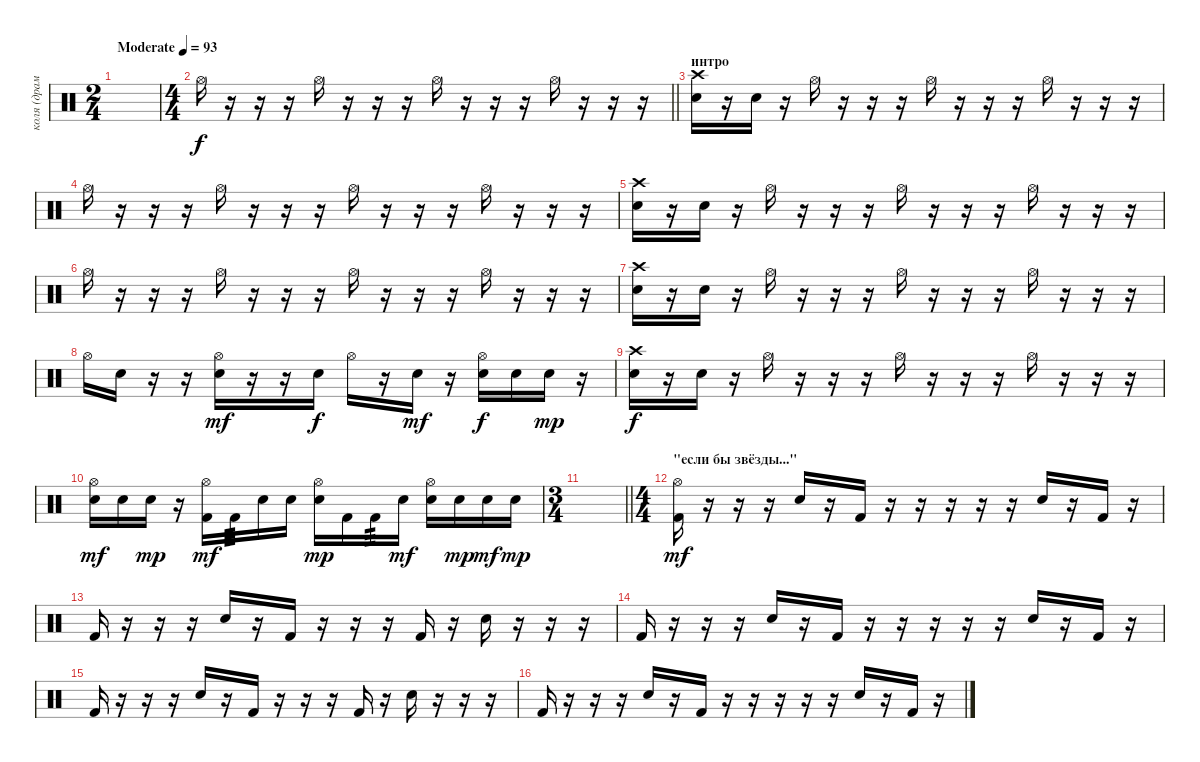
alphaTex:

\track ("коля (драммы)" "коля (драм") {instrument percussion}
\staff {score}
\articulation defaults
\ts (2 4)
\tempo (93 "Moderate")
\clef neutral
\ks c
|
\ts (4 4)
\barLineRight lightlight "Hi-Hat (open)".16
r.16 r.16 r.16 "Hi-Hat (open)".16 r.16 r.16 r.16 "Hi-Hat (open)".16 r.16 r.16 r.16 "Hi-Hat (open)".16 r.16 r.16 r.16 |
\section ("" "интро")
("Snare (hit) 2" "Crash high (hit)").16 r.16 "Snare (hit) 2".16 r.16 "Hi-Hat (open)".16 r.16 r.16 r.16 "Hi-Hat (open)".16 r.16 r.16 r.16 "Hi-Hat (open)".16 r.16 r.16 r.16 |
"Hi-Hat (open)".16 r.16 r.16 r.16 "Hi-Hat (open)".16 r.16 r.16 r.16 "Hi-Hat (open)".16 r.16 r.16 r.16 "Hi-Hat (open)".16 r.16 r.16 r.16 |
("Snare (hit) 2" "Crash high (hit)").16 r.16 "Snare (hit) 2".16 r.16 "Hi-Hat (open)".16 r.16 r.16 r.16 "Hi-Hat (open)".16 r.16 r.16 r.16 "Hi-Hat (open)".16 r.16 r.16 r.16 |
"Hi-Hat (open)".16 r.16 r.16 r.16 "Hi-Hat (open)".16 r.16 r.16 r.16 "Hi-Hat (open)".16 r.16 r.16 r.16 "Hi-Hat (open)".16 r.16 r.16 r.16 |
("Snare (hit) 2" "Crash high (hit)").16 r.16 "Snare (hit) 2".16 r.16 "Hi-Hat (open)".16 r.16 r.16 r.16 "Hi-Hat (open)".16 r.16 r.16 r.16 "Hi-Hat (open)".16 r.16 r.16 r.16 |
"Hi-Hat (open)".16 "Snare (hit) 2".16 r.16 r.16 ("Hi-Hat (open)" "Snare (hit) 2").16{dy mf} r.16 r.16 "Snare (hit) 2".16{dy f} "Hi-Hat (open)".16 r.16 "Snare (hit) 2".16{dy mf} r.16 ("Hi-Hat (open)" "Snare (hit) 2").16{dy f} "Snare (hit) 2".16 "Snare (hit) 2".16{dy mp} r.16 |
("Snare (hit) 2" "Crash high (hit)").16{dy f} r.16 "Snare (hit) 2".16 r.16 "Hi-Hat (open)".16 r.16 r.16 r.16 "Hi-Hat (open)".16 r.16 r.16 r.16 "Hi-Hat (open)".16 r.16 r.16 r.16 |
("Hi-Hat (open)" "Snare (hit) 2").16{dy mf} "Snare (hit) 2".16 "Snare (hit) 2".16{dy mp} r.16 ("Hi-Hat (open)" "Kick (hit) 2").16{dy mf} "Kick (hit) 2".16{tp 3} "Snare (hit) 2".16 "Snare (hit) 2".16 ("Hi-Hat (open)" "Snare (hit) 2").16{dy mp} "Kick (hit) 2".16 "Kick (hit) 2".16{tp 3} "Snare (hit) 2".16{dy mf} ("Hi-Hat (open)" "Snare (hit) 2").16 "Snare (hit) 2".16{dy mp} "Snare (hit) 2".16{dy mf} "Snare (hit) 2".16{dy mp} |
\ts (3 4)
\barLineRight lightlight
|
\ts (4 4)
\section ("" "\"если бы звёзды...\"")
("Hi-Hat (open)" "Kick (hit) 2").16{dy mf} r.16 r.16 r.16 "Snare (hit) 2".16 r.16 "Kick (hit) 2".16 r.16 r.16 r.16 r.16 r.16 "Snare (hit) 2".16 r.16 "Kick (hit) 2".16 r.16 |
"Kick (hit) 2".16 r.16 r.16 r.16 "Snare (hit) 2".16 r.16 "Kick (hit) 2".16 r.16 r.16 r.16 "Kick (hit) 2".16 r.16 "Snare (hit) 2".16 r.16 r.16 r.16 |
"Kick (hit) 2".16 r.16 r.16 r.16 "Snare (hit) 2".16 r.16 "Kick (hit) 2".16 r.16 r.16 r.16 r.16 r.16 "Snare (hit) 2".16 r.16 "Kick (hit) 2".16 r.16 |
"Kick (hit) 2".16 r.16 r.16 r.16 "Snare (hit) 2".16 r.16 "Kick (hit) 2".16 r.16 r.16 r.16 "Kick (hit) 2".16 r.16 "Snare (hit) 2".16 r.16 r.16 r.16 |
"Kick (hit) 2".16 r.16 r.16 r.16 "Snare (hit) 2".16 r.16 "Kick (hit) 2".16 r.16 r.16 r.16 r.16 r.16 "Snare (hit) 2".16 r.16 "Kick (hit) 2".16 r.16
